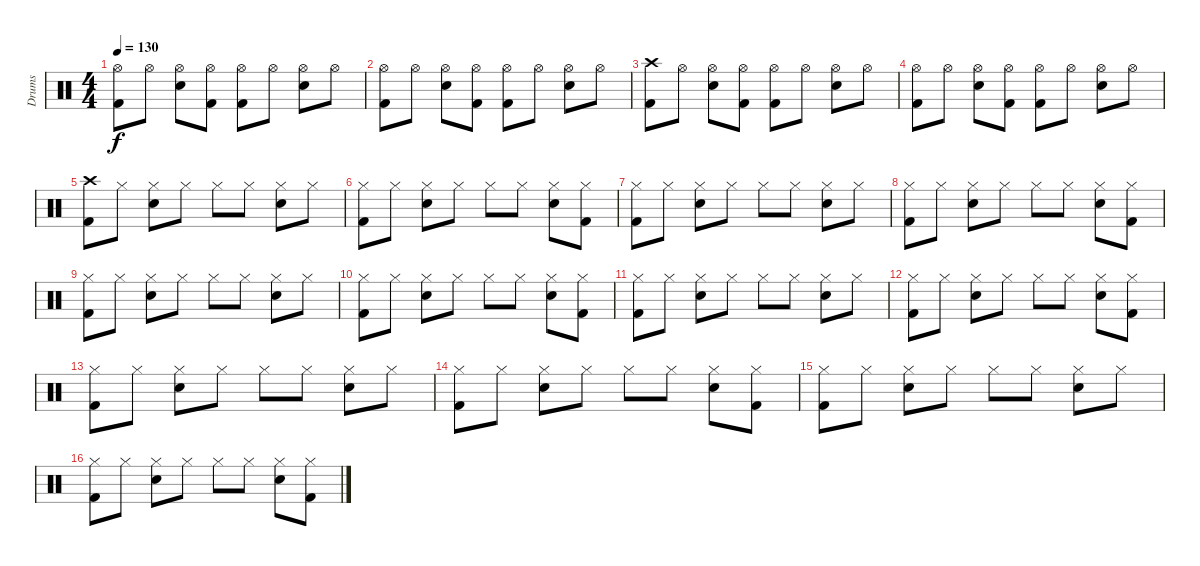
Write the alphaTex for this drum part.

\track ("Drums" "Drums") {instrument percussion}
\staff {score}
\articulation defaults
\ts (4 4)
\tempo 130
\clef neutral
\ks c
("Hi-Hat (open)" "Kick (hit) 2").8{dy f} "Hi-Hat (open)".8 ("Hi-Hat (open)" "Snare (hit) 2").8 ("Hi-Hat (open)" "Kick (hit) 2").8 ("Hi-Hat (open)" "Kick (hit) 2").8 "Hi-Hat (open)".8 ("Hi-Hat (open)" "Snare (hit) 2").8 "Hi-Hat (open)".8 |
("Hi-Hat (open)" "Kick (hit) 2").8 "Hi-Hat (open)".8 ("Hi-Hat (open)" "Snare (hit) 2").8 ("Hi-Hat (open)" "Kick (hit) 2").8 ("Hi-Hat (open)" "Kick (hit) 2").8 "Hi-Hat (open)".8 ("Hi-Hat (open)" "Snare (hit) 2").8 "Hi-Hat (open)".8 |
("Crash high (hit)" "Kick (hit) 2").8 "Hi-Hat (open)".8 ("Hi-Hat (open)" "Snare (hit) 2").8 ("Hi-Hat (open)" "Kick (hit) 2").8 ("Hi-Hat (open)" "Kick (hit) 2").8 "Hi-Hat (open)".8 ("Hi-Hat (open)" "Snare (hit) 2").8 "Hi-Hat (open)".8 |
("Hi-Hat (open)" "Kick (hit) 2").8 "Hi-Hat (open)".8 ("Hi-Hat (open)" "Snare (hit) 2").8 ("Hi-Hat (open)" "Kick (hit) 2").8 ("Hi-Hat (open)" "Kick (hit) 2").8 "Hi-Hat (open)".8 ("Hi-Hat (open)" "Snare (hit) 2").8 "Hi-Hat (open)".8 |
("Crash high (hit)" "Kick (hit) 2").8 "Hi-Hat (closed)".8 ("Hi-Hat (closed)" "Snare (hit) 2").8 "Hi-Hat (closed)".8 "Hi-Hat (closed)".8 "Hi-Hat (closed)".8 ("Hi-Hat (closed)" "Snare (hit) 2").8 "Hi-Hat (closed)".8 |
("Hi-Hat (closed)" "Kick (hit) 2").8 "Hi-Hat (closed)".8 ("Hi-Hat (closed)" "Snare (hit) 2").8 "Hi-Hat (closed)".8 "Hi-Hat (closed)".8 "Hi-Hat (closed)".8 ("Hi-Hat (closed)" "Snare (hit) 2").8 ("Hi-Hat (closed)" "Kick (hit) 2").8 |
("Hi-Hat (closed)" "Kick (hit) 2").8 "Hi-Hat (closed)".8 ("Hi-Hat (closed)" "Snare (hit) 2").8 "Hi-Hat (closed)".8 "Hi-Hat (closed)".8 "Hi-Hat (closed)".8 ("Hi-Hat (closed)" "Snare (hit) 2").8 "Hi-Hat (closed)".8 |
("Hi-Hat (closed)" "Kick (hit) 2").8 "Hi-Hat (closed)".8 ("Hi-Hat (closed)" "Snare (hit) 2").8 "Hi-Hat (closed)".8 "Hi-Hat (closed)".8 "Hi-Hat (closed)".8 ("Hi-Hat (closed)" "Snare (hit) 2").8 ("Hi-Hat (closed)" "Kick (hit) 2").8 |
("Hi-Hat (closed)" "Kick (hit) 2").8 "Hi-Hat (closed)".8 ("Hi-Hat (closed)" "Snare (hit) 2").8 "Hi-Hat (closed)".8 "Hi-Hat (closed)".8 "Hi-Hat (closed)".8 ("Hi-Hat (closed)" "Snare (hit) 2").8 "Hi-Hat (closed)".8 |
("Hi-Hat (closed)" "Kick (hit) 2").8 "Hi-Hat (closed)".8 ("Hi-Hat (closed)" "Snare (hit) 2").8 "Hi-Hat (closed)".8 "Hi-Hat (closed)".8 "Hi-Hat (closed)".8 ("Hi-Hat (closed)" "Snare (hit) 2").8 ("Hi-Hat (closed)" "Kick (hit) 2").8 |
("Hi-Hat (closed)" "Kick (hit) 2").8 "Hi-Hat (closed)".8 ("Hi-Hat (closed)" "Snare (hit) 2").8 "Hi-Hat (closed)".8 "Hi-Hat (closed)".8 "Hi-Hat (closed)".8 ("Hi-Hat (closed)" "Snare (hit) 2").8 "Hi-Hat (closed)".8 |
("Hi-Hat (closed)" "Kick (hit) 2").8 "Hi-Hat (closed)".8 ("Hi-Hat (closed)" "Snare (hit) 2").8 "Hi-Hat (closed)".8 "Hi-Hat (closed)".8 "Hi-Hat (closed)".8 ("Hi-Hat (closed)" "Snare (hit) 2").8 ("Hi-Hat (closed)" "Kick (hit) 2").8 |
("Hi-Hat (closed)" "Kick (hit) 2").8 "Hi-Hat (closed)".8 ("Hi-Hat (closed)" "Snare (hit) 2").8 "Hi-Hat (closed)".8 "Hi-Hat (closed)".8 "Hi-Hat (closed)".8 ("Hi-Hat (closed)" "Snare (hit) 2").8 "Hi-Hat (closed)".8 |
("Hi-Hat (closed)" "Kick (hit) 2").8 "Hi-Hat (closed)".8 ("Hi-Hat (closed)" "Snare (hit) 2").8 "Hi-Hat (closed)".8 "Hi-Hat (closed)".8 "Hi-Hat (closed)".8 ("Hi-Hat (closed)" "Snare (hit) 2").8 ("Hi-Hat (closed)" "Kick (hit) 2").8 |
("Hi-Hat (closed)" "Kick (hit) 2").8 "Hi-Hat (closed)".8 ("Hi-Hat (closed)" "Snare (hit) 2").8 "Hi-Hat (closed)".8 "Hi-Hat (closed)".8 "Hi-Hat (closed)".8 ("Hi-Hat (closed)" "Snare (hit) 2").8 "Hi-Hat (closed)".8 |
("Hi-Hat (closed)" "Kick (hit) 2").8 "Hi-Hat (closed)".8 ("Hi-Hat (closed)" "Snare (hit) 2").8 "Hi-Hat (closed)".8 "Hi-Hat (closed)".8 "Hi-Hat (closed)".8 ("Hi-Hat (closed)" "Snare (hit) 2").8 ("Hi-Hat (closed)" "Kick (hit) 2").8
